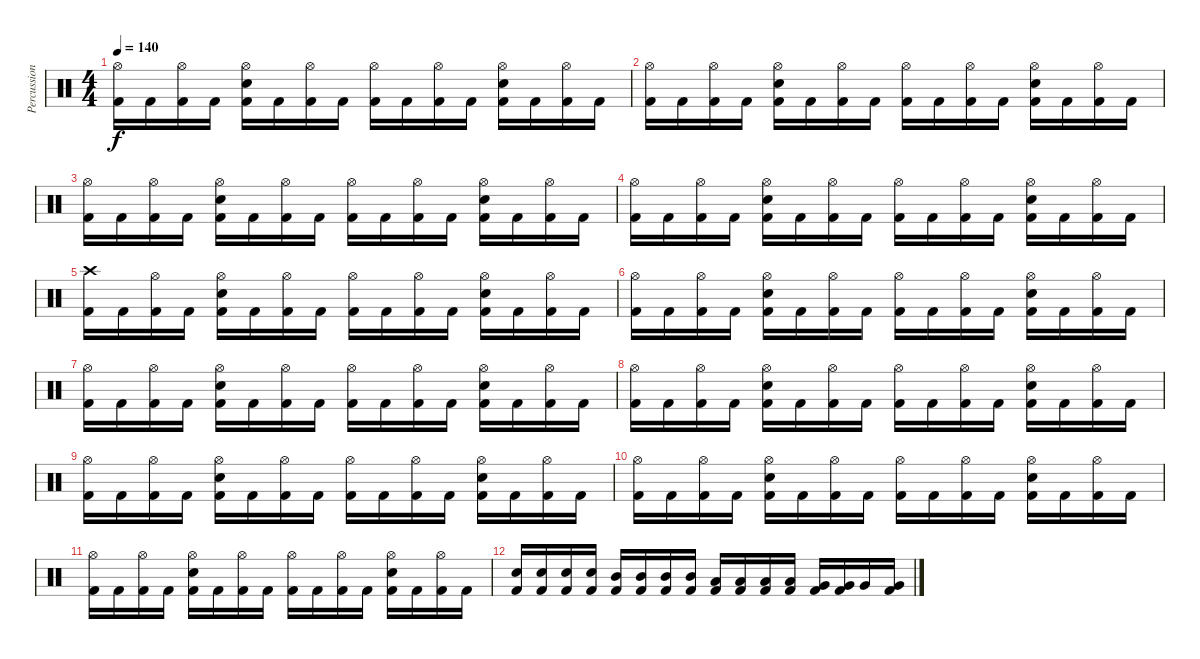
\track ("Percussion" "Percussion") {instrument percussion}
\staff {score}
\articulation defaults
\ts (4 4)
\tempo 140
\clef neutral
\ks c
("Hi-Hat (open)" "Kick (hit) 2").16{dy f} "Kick (hit) 2".16 ("Hi-Hat (open)" "Kick (hit) 2").16 "Kick (hit) 2".16 ("Hi-Hat (open)" "Electric Snare (hit)" "Kick (hit) 2").16 "Kick (hit) 2".16 ("Hi-Hat (open)" "Kick (hit) 2").16 "Kick (hit) 2".16 ("Hi-Hat (open)" "Kick (hit) 2").16 "Kick (hit) 2".16 ("Hi-Hat (open)" "Kick (hit) 2").16 "Kick (hit) 2".16 ("Hi-Hat (open)" "Electric Snare (hit)" "Kick (hit) 2").16 "Kick (hit) 2".16 ("Hi-Hat (open)" "Kick (hit) 2").16 "Kick (hit) 2".16 |
("Hi-Hat (open)" "Kick (hit) 2").16 "Kick (hit) 2".16 ("Hi-Hat (open)" "Kick (hit) 2").16 "Kick (hit) 2".16 ("Hi-Hat (open)" "Electric Snare (hit)" "Kick (hit) 2").16 "Kick (hit) 2".16 ("Hi-Hat (open)" "Kick (hit) 2").16 "Kick (hit) 2".16 ("Hi-Hat (open)" "Kick (hit) 2").16 "Kick (hit) 2".16 ("Hi-Hat (open)" "Kick (hit) 2").16 "Kick (hit) 2".16 ("Hi-Hat (open)" "Electric Snare (hit)" "Kick (hit) 2").16 "Kick (hit) 2".16 ("Hi-Hat (open)" "Kick (hit) 2").16 "Kick (hit) 2".16 |
("Hi-Hat (open)" "Kick (hit) 2").16 "Kick (hit) 2".16 ("Hi-Hat (open)" "Kick (hit) 2").16 "Kick (hit) 2".16 ("Hi-Hat (open)" "Electric Snare (hit)" "Kick (hit) 2").16 "Kick (hit) 2".16 ("Hi-Hat (open)" "Kick (hit) 2").16 "Kick (hit) 2".16 ("Hi-Hat (open)" "Kick (hit) 2").16 "Kick (hit) 2".16 ("Hi-Hat (open)" "Kick (hit) 2").16 "Kick (hit) 2".16 ("Hi-Hat (open)" "Electric Snare (hit)" "Kick (hit) 2").16 "Kick (hit) 2".16 ("Hi-Hat (open)" "Kick (hit) 2").16 "Kick (hit) 2".16 |
("Hi-Hat (open)" "Kick (hit) 2").16 "Kick (hit) 2".16 ("Hi-Hat (open)" "Kick (hit) 2").16 "Kick (hit) 2".16 ("Hi-Hat (open)" "Electric Snare (hit)" "Kick (hit) 2").16 "Kick (hit) 2".16 ("Hi-Hat (open)" "Kick (hit) 2").16 "Kick (hit) 2".16 ("Hi-Hat (open)" "Kick (hit) 2").16 "Kick (hit) 2".16 ("Hi-Hat (open)" "Kick (hit) 2").16 "Kick (hit) 2".16 ("Hi-Hat (open)" "Electric Snare (hit)" "Kick (hit) 2").16 "Kick (hit) 2".16 ("Hi-Hat (open)" "Kick (hit) 2").16 "Kick (hit) 2".16 |
("Crash high (hit)" "Kick (hit) 2").16 "Kick (hit) 2".16 ("Hi-Hat (open)" "Kick (hit) 2").16 "Kick (hit) 2".16 ("Hi-Hat (open)" "Electric Snare (hit)" "Kick (hit) 2").16 "Kick (hit) 2".16 ("Hi-Hat (open)" "Kick (hit) 2").16 "Kick (hit) 2".16 ("Hi-Hat (open)" "Kick (hit) 2").16 "Kick (hit) 2".16 ("Hi-Hat (open)" "Kick (hit) 2").16 "Kick (hit) 2".16 ("Hi-Hat (open)" "Electric Snare (hit)" "Kick (hit) 2").16 "Kick (hit) 2".16 ("Hi-Hat (open)" "Kick (hit) 2").16 "Kick (hit) 2".16 |
("Hi-Hat (open)" "Kick (hit) 2").16 "Kick (hit) 2".16 ("Hi-Hat (open)" "Kick (hit) 2").16 "Kick (hit) 2".16 ("Hi-Hat (open)" "Electric Snare (hit)" "Kick (hit) 2").16 "Kick (hit) 2".16 ("Hi-Hat (open)" "Kick (hit) 2").16 "Kick (hit) 2".16 ("Hi-Hat (open)" "Kick (hit) 2").16 "Kick (hit) 2".16 ("Hi-Hat (open)" "Kick (hit) 2").16 "Kick (hit) 2".16 ("Hi-Hat (open)" "Electric Snare (hit)" "Kick (hit) 2").16 "Kick (hit) 2".16 ("Hi-Hat (open)" "Kick (hit) 2").16 "Kick (hit) 2".16 |
("Hi-Hat (open)" "Kick (hit) 2").16 "Kick (hit) 2".16 ("Hi-Hat (open)" "Kick (hit) 2").16 "Kick (hit) 2".16 ("Hi-Hat (open)" "Electric Snare (hit)" "Kick (hit) 2").16 "Kick (hit) 2".16 ("Hi-Hat (open)" "Kick (hit) 2").16 "Kick (hit) 2".16 ("Hi-Hat (open)" "Kick (hit) 2").16 "Kick (hit) 2".16 ("Hi-Hat (open)" "Kick (hit) 2").16 "Kick (hit) 2".16 ("Hi-Hat (open)" "Electric Snare (hit)" "Kick (hit) 2").16 "Kick (hit) 2".16 ("Hi-Hat (open)" "Kick (hit) 2").16 "Kick (hit) 2".16 |
("Hi-Hat (open)" "Kick (hit) 2").16 "Kick (hit) 2".16 ("Hi-Hat (open)" "Kick (hit) 2").16 "Kick (hit) 2".16 ("Hi-Hat (open)" "Electric Snare (hit)" "Kick (hit) 2").16 "Kick (hit) 2".16 ("Hi-Hat (open)" "Kick (hit) 2").16 "Kick (hit) 2".16 ("Hi-Hat (open)" "Kick (hit) 2").16 "Kick (hit) 2".16 ("Hi-Hat (open)" "Kick (hit) 2").16 "Kick (hit) 2".16 ("Hi-Hat (open)" "Electric Snare (hit)" "Kick (hit) 2").16 "Kick (hit) 2".16 ("Hi-Hat (open)" "Kick (hit) 2").16 "Kick (hit) 2".16 |
("Hi-Hat (open)" "Kick (hit) 2").16 "Kick (hit) 2".16 ("Hi-Hat (open)" "Kick (hit) 2").16 "Kick (hit) 2".16 ("Hi-Hat (open)" "Electric Snare (hit)" "Kick (hit) 2").16 "Kick (hit) 2".16 ("Hi-Hat (open)" "Kick (hit) 2").16 "Kick (hit) 2".16 ("Hi-Hat (open)" "Kick (hit) 2").16 "Kick (hit) 2".16 ("Hi-Hat (open)" "Kick (hit) 2").16 "Kick (hit) 2".16 ("Hi-Hat (open)" "Electric Snare (hit)" "Kick (hit) 2").16 "Kick (hit) 2".16 ("Hi-Hat (open)" "Kick (hit) 2").16 "Kick (hit) 2".16 |
("Hi-Hat (open)" "Kick (hit) 2").16 "Kick (hit) 2".16 ("Hi-Hat (open)" "Kick (hit) 2").16 "Kick (hit) 2".16 ("Hi-Hat (open)" "Electric Snare (hit)" "Kick (hit) 2").16 "Kick (hit) 2".16 ("Hi-Hat (open)" "Kick (hit) 2").16 "Kick (hit) 2".16 ("Hi-Hat (open)" "Kick (hit) 2").16 "Kick (hit) 2".16 ("Hi-Hat (open)" "Kick (hit) 2").16 "Kick (hit) 2".16 ("Hi-Hat (open)" "Electric Snare (hit)" "Kick (hit) 2").16 "Kick (hit) 2".16 ("Hi-Hat (open)" "Kick (hit) 2").16 "Kick (hit) 2".16 |
("Hi-Hat (open)" "Kick (hit) 2").16 "Kick (hit) 2".16 ("Hi-Hat (open)" "Kick (hit) 2").16 "Kick (hit) 2".16 ("Hi-Hat (open)" "Electric Snare (hit)" "Kick (hit) 2").16 "Kick (hit) 2".16 ("Hi-Hat (open)" "Kick (hit) 2").16 "Kick (hit) 2".16 ("Hi-Hat (open)" "Kick (hit) 2").16 "Kick (hit) 2".16 ("Hi-Hat (open)" "Kick (hit) 2").16 "Kick (hit) 2".16 ("Hi-Hat (open)" "Electric Snare (hit)" "Kick (hit) 2").16 "Kick (hit) 2".16 ("Hi-Hat (open)" "Kick (hit) 2").16 "Kick (hit) 2".16 |
("Electric Snare (hit)" "Kick (hit) 2").16 ("Electric Snare (hit)" "Kick (hit) 2").16 ("Electric Snare (hit)" "Kick (hit) 2").16 ("Electric Snare (hit)" "Kick (hit) 2").16 ("Mid Tom (hit)" "Kick (hit) 2").16 ("Mid Tom (hit)" "Kick (hit) 2").16 ("Mid Tom (hit)" "Kick (hit) 2").16 ("Mid Tom (hit)" "Kick (hit) 2").16 ("Low Tom (hit)" "Kick (hit) 2").16 ("Low Tom (hit)" "Kick (hit) 2").16 ("Low Tom (hit)" "Kick (hit) 2").16 ("Low Tom (hit)" "Kick (hit) 2").16 ("Very Low Tom (hit)" "Kick (hit) 2").16 ("Very Low Tom (hit)" "Kick (hit) 2").16 "Very Low Tom (hit)".16 ("Very Low Tom (hit)" "Kick (hit) 2").16
